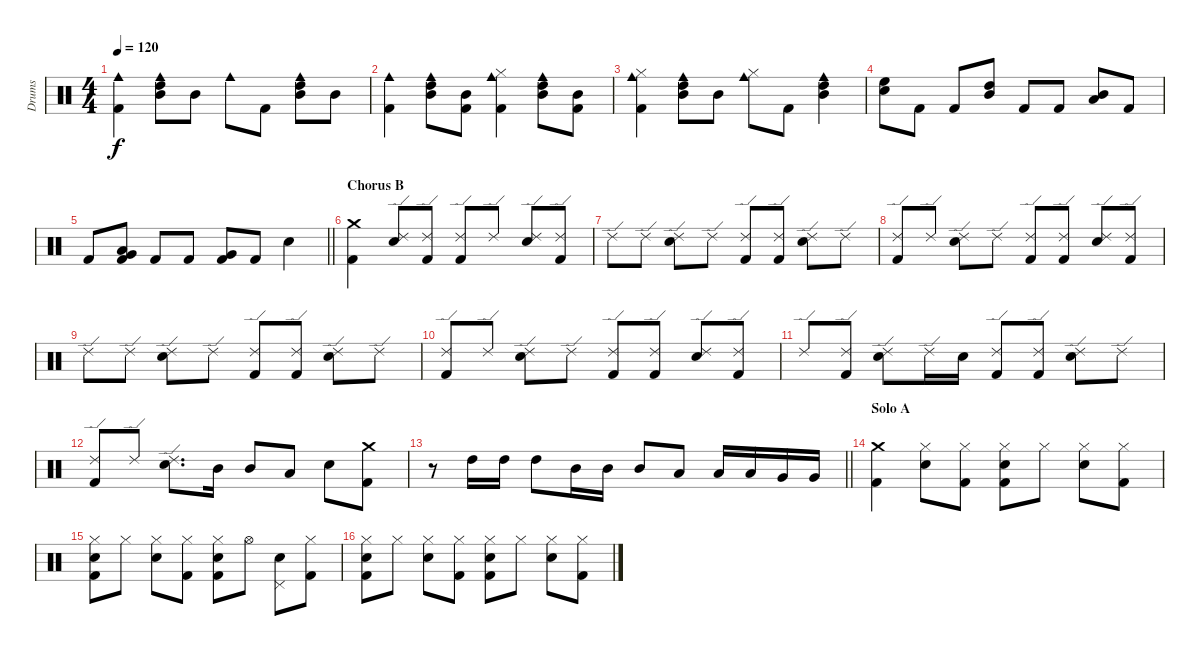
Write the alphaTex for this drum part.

\track ("Drums" "Drums") {instrument percussion}
\staff {score}
\articulation defaults
\ts (4 4)
\tempo 120
\clef neutral
\ks c
("Cowbell medium (hit)" "Kick (hit) 2").4{dy f} ("High Tom (hit)" "Mid Tom (hit)" "Cowbell medium (hit)").8 "Mid Tom (hit)".8 "Cowbell medium (hit)".8 "Kick (hit) 2".8 ("High Tom (hit)" "Mid Tom (hit)" "Cowbell medium (hit)").8 "Mid Tom (hit)".8 |
("Cowbell medium (hit)" "Kick (hit) 2").4 ("High Tom (hit)" "Mid Tom (hit)" "Cowbell medium (hit)").8 ("Mid Tom (hit)" "Kick (hit) 2").8 ("Hi-Hat (closed)" "Cowbell medium (hit)" "Kick (hit) 2").4 ("High Tom (hit)" "Mid Tom (hit)" "Cowbell medium (hit)").8 ("Mid Tom (hit)" "Kick (hit) 2").8 |
("Hi-Hat (closed)" "Cowbell medium (hit)" "Kick (hit) 2").4 ("High Tom (hit)" "Mid Tom (hit)" "Cowbell medium (hit)").8 "Mid Tom (hit)".8 ("Hi-Hat (closed)" "Cowbell medium (hit)").8 "Kick (hit) 2".8 ("High Tom (hit)" "Mid Tom (hit)" "Cowbell medium (hit)").4 |
("High Floor Tom (hit)" "Electric Snare (hit)").8 "Kick (hit) 2".8 "Kick (hit) 2".8 ("High Tom (hit)" "Mid Tom (hit)").8 "Kick (hit) 2".8 "Kick (hit) 2".8 ("Mid Tom (hit)" "Low Tom (hit)").8 "Kick (hit) 2".8 |
\barLineRight lightlight "Kick (hit) 2".8
("Low Tom (hit)" "Very Low Tom (hit)" "Kick (hit) 2").8 "Kick (hit) 2".8 "Kick (hit) 2".8 ("Very Low Tom (hit)" "Kick (hit) 2").8 "Kick (hit) 2".8 "Electric Snare (hit)".4 |
\section ("" "Chorus B")
("Crash medium (hit)" "Kick (hit) 2").4 ("Ride (edge) 2" "Electric Snare (hit)").8 ("Ride (edge) 2" "Kick (hit) 2").8 ("Ride (edge) 2" "Kick (hit) 2").8 "Ride (edge) 2".8 ("Ride (edge) 2" "Electric Snare (hit)").8 ("Ride (edge) 2" "Kick (hit) 2").8 |
"Ride (edge) 2".8 "Ride (edge) 2".8 ("Ride (edge) 2" "Electric Snare (hit)").8 "Ride (edge) 2".8 ("Ride (edge) 2" "Kick (hit) 2").8 ("Ride (edge) 2" "Kick (hit) 2").8 ("Ride (edge) 2" "Electric Snare (hit)").8 "Ride (edge) 2".8 |
("Ride (edge) 2" "Kick (hit) 2").8 "Ride (edge) 2".8 ("Ride (edge) 2" "Electric Snare (hit)").8 "Ride (edge) 2".8 ("Ride (edge) 2" "Kick (hit) 2").8 ("Ride (edge) 2" "Kick (hit) 2").8 ("Ride (edge) 2" "Electric Snare (hit)").8 ("Ride (edge) 2" "Kick (hit) 2").8 |
"Ride (edge) 2".8 "Ride (edge) 2".8 ("Ride (edge) 2" "Electric Snare (hit)").8 "Ride (edge) 2".8 ("Ride (edge) 2" "Kick (hit) 2").8 ("Ride (edge) 2" "Kick (hit) 2").8 ("Ride (edge) 2" "Electric Snare (hit)").8 "Ride (edge) 2".8 |
("Ride (edge) 2" "Kick (hit) 2").8 "Ride (edge) 2".8 ("Ride (edge) 2" "Electric Snare (hit)").8 "Ride (edge) 2".8 ("Ride (edge) 2" "Kick (hit) 2").8 ("Ride (edge) 2" "Kick (hit) 2").8 ("Ride (edge) 2" "Electric Snare (hit)").8 ("Ride (edge) 2" "Kick (hit) 2").8 |
"Ride (edge) 2".8 ("Ride (edge) 2" "Kick (hit) 2").8 ("Ride (edge) 2" "Electric Snare (hit)").8 "Ride (edge) 2".16 "Electric Snare (hit)".16 ("Ride (edge) 2" "Kick (hit) 2").8 ("Ride (edge) 2" "Kick (hit) 2").8 ("Ride (edge) 2" "Electric Snare (hit)").8 "Ride (edge) 2".8 |
("Ride (edge) 2" "Kick (hit) 2").8 "Ride (edge) 2".8 ("Ride (edge) 2" "Electric Snare (hit)").8{d} "Mid Tom (hit)".16 "Mid Tom (hit)".8 "Low Tom (hit)".8 "Electric Snare (hit)".8 ("Crash medium (hit)" "Kick (hit) 2").8 |
\barLineRight lightlight
r.8 "High Tom (hit)".16 "High Tom (hit)".16 "High Tom (hit)".8 "Mid Tom (hit)".16 "Mid Tom (hit)".16 "Mid Tom (hit)".8 "Low Tom (hit)".8 "Low Tom (hit)".16 "Low Tom (hit)".16 "Very Low Tom (hit)".16 "Very Low Tom (hit)".16 |
\section ("" "Solo A")
("Crash medium (hit)" "Kick (hit) 2").4 ("Hi-Hat (closed)" "Electric Snare (hit)").8 ("Hi-Hat (closed)" "Kick (hit) 2").8 ("Hi-Hat (closed)" "Electric Snare (hit)" "Kick (hit) 2").8 "Hi-Hat (closed)".8 ("Hi-Hat (closed)" "Electric Snare (hit)").8 ("Hi-Hat (closed)" "Kick (hit) 2").8 |
("Hi-Hat (closed)" "Electric Snare (hit)" "Kick (hit) 2").8 "Hi-Hat (closed)".8 ("Hi-Hat (closed)" "Electric Snare (hit)").8 ("Hi-Hat (closed)" "Kick (hit) 2").8 ("Hi-Hat (closed)" "Electric Snare (hit)" "Kick (hit) 2").8 "Hi-Hat (open)".8 ("Pedal Hi-Hat (hit)" "Electric Snare (hit)").8 ("Hi-Hat (closed)" "Kick (hit) 2").8 |
("Hi-Hat (closed)" "Electric Snare (hit)" "Kick (hit) 2").8 "Hi-Hat (closed)".8 ("Hi-Hat (closed)" "Electric Snare (hit)").8 ("Hi-Hat (closed)" "Kick (hit) 2").8 ("Hi-Hat (closed)" "Electric Snare (hit)" "Kick (hit) 2").8 "Hi-Hat (closed)".8 ("Hi-Hat (closed)" "Electric Snare (hit)").8 ("Hi-Hat (closed)" "Kick (hit) 2").8
